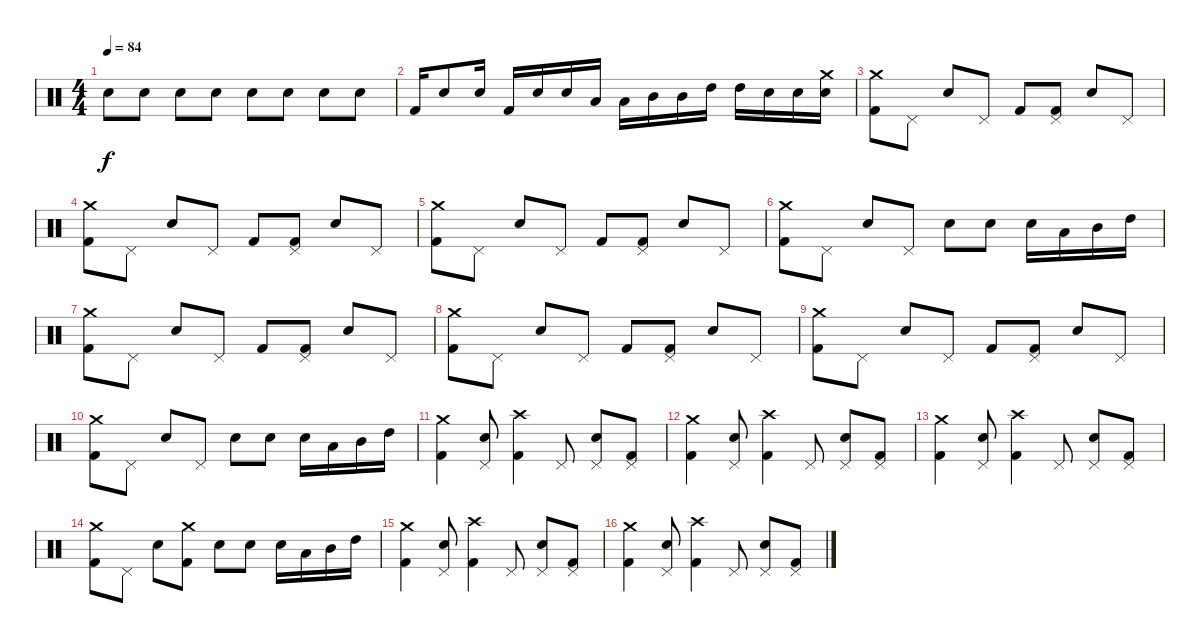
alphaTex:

\track "" {instrument percussion}
\staff {score}
\articulation defaults
\ts (4 4)
\tempo 84
\clef neutral
\ks c "Snare (hit) 2".8{dy f} "Snare (hit) 2".8 "Snare (hit) 2".8 "Snare (hit) 2".8 "Snare (hit) 2".8 "Snare (hit) 2".8 "Snare (hit) 2".8 "Snare (hit) 2".8
|
"Kick (hit) 2".16 "Snare (hit) 2".8 "Snare (hit) 2".16 "Kick (hit) 2".16 "Snare (hit) 2".16 "Snare (hit) 2".16 "Low Tom (hit)".16 "Low Tom (hit)".16 "Mid Tom (hit)".16 "Mid Tom (hit)".16 "High Tom (hit)".16 "High Tom (hit)".16 "Snare (hit) 2".16 "Snare (hit) 2".16 ("Crash medium (hit)" "Snare (hit) 2").16 |
("Crash medium (hit)" "Kick (hit) 2").8 "Pedal Hi-Hat (hit)".8 "Snare (hit) 2".8 "Pedal Hi-Hat (hit)".8 "Kick (hit) 2".8 ("Pedal Hi-Hat (hit)" "Kick (hit) 2").8 "Snare (hit) 2".8 "Pedal Hi-Hat (hit)".8 |
("Crash medium (hit)" "Kick (hit) 2").8 "Pedal Hi-Hat (hit)".8 "Snare (hit) 2".8 "Pedal Hi-Hat (hit)".8 "Kick (hit) 2".8 ("Pedal Hi-Hat (hit)" "Kick (hit) 2").8 "Snare (hit) 2".8 "Pedal Hi-Hat (hit)".8 |
("Crash medium (hit)" "Kick (hit) 2").8 "Pedal Hi-Hat (hit)".8 "Snare (hit) 2".8 "Pedal Hi-Hat (hit)".8 "Kick (hit) 2".8 ("Pedal Hi-Hat (hit)" "Kick (hit) 2").8 "Snare (hit) 2".8 "Pedal Hi-Hat (hit)".8 |
("Crash medium (hit)" "Kick (hit) 2").8 "Pedal Hi-Hat (hit)".8 "Snare (hit) 2".8 "Pedal Hi-Hat (hit)".8 "Electric Snare (hit)".8 "Electric Snare (hit)".8 "Electric Snare (hit)".16 "Low Tom (hit)".16 "Mid Tom (hit)".16 "High Tom (hit)".16 |
("Crash medium (hit)" "Kick (hit) 2").8 "Pedal Hi-Hat (hit)".8 "Snare (hit) 2".8 "Pedal Hi-Hat (hit)".8 "Kick (hit) 2".8 ("Pedal Hi-Hat (hit)" "Kick (hit) 2").8 "Snare (hit) 2".8 "Pedal Hi-Hat (hit)".8 |
("Crash medium (hit)" "Kick (hit) 2").8 "Pedal Hi-Hat (hit)".8 "Snare (hit) 2".8 "Pedal Hi-Hat (hit)".8 "Kick (hit) 2".8 ("Pedal Hi-Hat (hit)" "Kick (hit) 2").8 "Snare (hit) 2".8 "Pedal Hi-Hat (hit)".8 |
("Crash medium (hit)" "Kick (hit) 2").8 "Pedal Hi-Hat (hit)".8 "Snare (hit) 2".8 "Pedal Hi-Hat (hit)".8 "Kick (hit) 2".8 ("Pedal Hi-Hat (hit)" "Kick (hit) 2").8 "Snare (hit) 2".8 "Pedal Hi-Hat (hit)".8 |
("Crash medium (hit)" "Kick (hit) 2").8 "Pedal Hi-Hat (hit)".8 "Snare (hit) 2".8 "Pedal Hi-Hat (hit)".8 "Electric Snare (hit)".8 "Electric Snare (hit)".8 "Electric Snare (hit)".16 "Low Tom (hit)".16 "Mid Tom (hit)".16 "High Tom (hit)".16{txt ""} |
("Crash medium (hit)" "Kick (hit) 2").4 ("Pedal Hi-Hat (hit)" "Snare (hit) 2").8 ("Crash high (hit)" "Kick (hit) 2").4 "Pedal Hi-Hat (hit)".8 ("Pedal Hi-Hat (hit)" "Snare (hit) 2").8 ("Pedal Hi-Hat (hit)" "Kick (hit) 2").8 |
("Crash medium (hit)" "Kick (hit) 2").4 ("Pedal Hi-Hat (hit)" "Snare (hit) 2").8 ("Crash high (hit)" "Kick (hit) 2").4 "Pedal Hi-Hat (hit)".8 ("Pedal Hi-Hat (hit)" "Snare (hit) 2").8 ("Pedal Hi-Hat (hit)" "Kick (hit) 2").8 |
("Crash medium (hit)" "Kick (hit) 2").4 ("Pedal Hi-Hat (hit)" "Snare (hit) 2").8 ("Crash high (hit)" "Kick (hit) 2").4 "Pedal Hi-Hat (hit)".8 ("Pedal Hi-Hat (hit)" "Snare (hit) 2").8 ("Pedal Hi-Hat (hit)" "Kick (hit) 2").8 |
("Crash medium (hit)" "Kick (hit) 2").8 "Pedal Hi-Hat (hit)".8 "Snare (hit) 2".8 ("Crash medium (hit)" "Kick (hit) 2").8 "Electric Snare (hit)".8 "Electric Snare (hit)".8 "Electric Snare (hit)".16 "Low Tom (hit)".16 "Mid Tom (hit)".16 "High Tom (hit)".16 |
("Crash medium (hit)" "Kick (hit) 2").4 ("Pedal Hi-Hat (hit)" "Snare (hit) 2").8 ("Crash high (hit)" "Kick (hit) 2").4 "Pedal Hi-Hat (hit)".8 ("Pedal Hi-Hat (hit)" "Snare (hit) 2").8 ("Pedal Hi-Hat (hit)" "Kick (hit) 2").8 |
("Crash medium (hit)" "Kick (hit) 2").4 ("Pedal Hi-Hat (hit)" "Snare (hit) 2").8 ("Crash high (hit)" "Kick (hit) 2").4 "Pedal Hi-Hat (hit)".8 ("Pedal Hi-Hat (hit)" "Snare (hit) 2").8 ("Pedal Hi-Hat (hit)" "Kick (hit) 2").8
